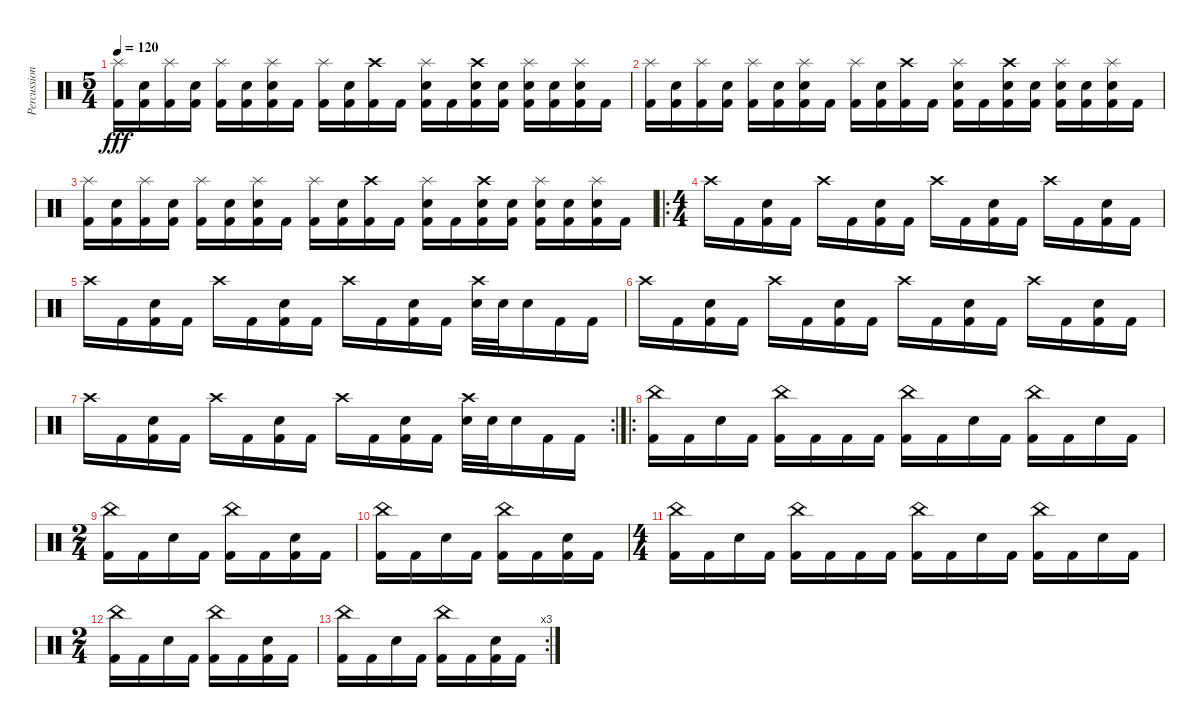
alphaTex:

\track ("Percussion" "Percussion") {instrument percussion}
\staff {score}
\articulation defaults
\ts (5 4)
\tempo 120
\clef neutral
\ks c
("Splash (hit)" "Kick (hit) 2").16{dy fff} ("Snare (hit) 2" "Kick (hit) 2").16 ("Splash (hit)" "Kick (hit) 2").16 ("Snare (hit) 2" "Kick (hit) 2").16 ("Splash (hit)" "Kick (hit) 2").16 ("Snare (hit) 2" "Kick (hit) 2").16 ("Splash (hit)" "Snare (hit) 2" "Kick (hit) 2").16 "Kick (hit) 2".16 ("Splash (hit)" "Kick (hit) 2").16 ("Snare (hit) 2" "Kick (hit) 2").16 ("Crash high (hit)" "Kick (hit) 2").16 "Kick (hit) 2".16 ("Splash (hit)" "Snare (hit) 2" "Kick (hit) 2").16 "Kick (hit) 2".16 ("Crash high (hit)" "Snare (hit) 2" "Kick (hit) 2").16 ("Snare (hit) 2" "Kick (hit) 2").16 ("Splash (hit)" "Snare (hit) 2" "Kick (hit) 2").16 ("Snare (hit) 2" "Kick (hit) 2").16 ("Splash (hit)" "Snare (hit) 2" "Kick (hit) 2").16 "Kick (hit) 2".16 |
("Splash (hit)" "Kick (hit) 2").16 ("Snare (hit) 2" "Kick (hit) 2").16 ("Splash (hit)" "Kick (hit) 2").16 ("Snare (hit) 2" "Kick (hit) 2").16 ("Splash (hit)" "Kick (hit) 2").16 ("Snare (hit) 2" "Kick (hit) 2").16 ("Splash (hit)" "Snare (hit) 2" "Kick (hit) 2").16 "Kick (hit) 2".16 ("Splash (hit)" "Kick (hit) 2").16 ("Snare (hit) 2" "Kick (hit) 2").16 ("Crash high (hit)" "Kick (hit) 2").16 "Kick (hit) 2".16 ("Splash (hit)" "Snare (hit) 2" "Kick (hit) 2").16 "Kick (hit) 2".16 ("Crash high (hit)" "Snare (hit) 2" "Kick (hit) 2").16 ("Snare (hit) 2" "Kick (hit) 2").16 ("Splash (hit)" "Snare (hit) 2" "Kick (hit) 2").16 ("Snare (hit) 2" "Kick (hit) 2").16 ("Splash (hit)" "Snare (hit) 2" "Kick (hit) 2").16 "Kick (hit) 2".16 |
("Splash (hit)" "Kick (hit) 2").16 ("Snare (hit) 2" "Kick (hit) 2").16 ("Splash (hit)" "Kick (hit) 2").16 ("Snare (hit) 2" "Kick (hit) 2").16 ("Splash (hit)" "Kick (hit) 2").16 ("Snare (hit) 2" "Kick (hit) 2").16 ("Splash (hit)" "Snare (hit) 2" "Kick (hit) 2").16 "Kick (hit) 2".16 ("Splash (hit)" "Kick (hit) 2").16 ("Snare (hit) 2" "Kick (hit) 2").16 ("Crash high (hit)" "Kick (hit) 2").16 "Kick (hit) 2".16 ("Splash (hit)" "Snare (hit) 2" "Kick (hit) 2").16 "Kick (hit) 2".16 ("Crash high (hit)" "Snare (hit) 2" "Kick (hit) 2").16 ("Snare (hit) 2" "Kick (hit) 2").16 ("Splash (hit)" "Snare (hit) 2" "Kick (hit) 2").16 ("Snare (hit) 2" "Kick (hit) 2").16 ("Splash (hit)" "Snare (hit) 2" "Kick (hit) 2").16 "Kick (hit) 2".16 |
\ro
\ts (4 4)
"Crash high (hit)".16 "Kick (hit) 2".16 ("Snare (hit) 2" "Kick (hit) 2").16 "Kick (hit) 2".16 "Crash high (hit)".16 "Kick (hit) 2".16 ("Snare (hit) 2" "Kick (hit) 2").16 "Kick (hit) 2".16 "Crash high (hit)".16 "Kick (hit) 2".16 ("Snare (hit) 2" "Kick (hit) 2").16 "Kick (hit) 2".16 "Crash high (hit)".16 "Kick (hit) 2".16 ("Snare (hit) 2" "Kick (hit) 2").16 "Kick (hit) 2".16 |
"Crash high (hit)".16 "Kick (hit) 2".16 ("Snare (hit) 2" "Kick (hit) 2").16 "Kick (hit) 2".16 "Crash high (hit)".16 "Kick (hit) 2".16 ("Snare (hit) 2" "Kick (hit) 2").16 "Kick (hit) 2".16 "Crash high (hit)".16 "Kick (hit) 2".16 ("Snare (hit) 2" "Kick (hit) 2").16 "Kick (hit) 2".16 ("Crash high (hit)" "Snare (hit) 2").32 "Snare (hit) 2".32 "Snare (hit) 2".16 "Kick (hit) 2".16 "Kick (hit) 2".16 |
"Crash high (hit)".16 "Kick (hit) 2".16 ("Snare (hit) 2" "Kick (hit) 2").16 "Kick (hit) 2".16 "Crash high (hit)".16 "Kick (hit) 2".16 ("Snare (hit) 2" "Kick (hit) 2").16 "Kick (hit) 2".16 "Crash high (hit)".16 "Kick (hit) 2".16 ("Snare (hit) 2" "Kick (hit) 2").16 "Kick (hit) 2".16 "Crash high (hit)".16 "Kick (hit) 2".16 ("Snare (hit) 2" "Kick (hit) 2").16 "Kick (hit) 2".16 |
\rc 2 "Crash high (hit)".16 "Kick (hit) 2".16
("Snare (hit) 2" "Kick (hit) 2").16 "Kick (hit) 2".16 "Crash high (hit)".16 "Kick (hit) 2".16 ("Snare (hit) 2" "Kick (hit) 2").16 "Kick (hit) 2".16 "Crash high (hit)".16 "Kick (hit) 2".16 ("Snare (hit) 2" "Kick (hit) 2").16 "Kick (hit) 2".16 ("Crash high (hit)" "Snare (hit) 2").32 "Snare (hit) 2".32 "Snare (hit) 2".16 "Kick (hit) 2".16 "Kick (hit) 2".16 |
\ro
("China (hit)" "Kick (hit) 2").16 "Kick (hit) 2".16 "Snare (hit) 2".16 "Kick (hit) 2".16 ("China (hit)" "Kick (hit) 2").16 "Kick (hit) 2".16 "Kick (hit) 2".16 "Kick (hit) 2".16 ("China (hit)" "Kick (hit) 2").16 "Kick (hit) 2".16 "Snare (hit) 2".16 "Kick (hit) 2".16 ("China (hit)" "Kick (hit) 2").16 "Kick (hit) 2".16 "Snare (hit) 2".16 "Kick (hit) 2".16 |
\ts (2 4)
("China (hit)" "Kick (hit) 2").16 "Kick (hit) 2".16 "Snare (hit) 2".16 "Kick (hit) 2".16 ("China (hit)" "Kick (hit) 2").16 "Kick (hit) 2".16 ("Snare (hit) 2" "Kick (hit) 2").16 "Kick (hit) 2".16 |
("China (hit)" "Kick (hit) 2").16 "Kick (hit) 2".16 "Snare (hit) 2".16 "Kick (hit) 2".16 ("China (hit)" "Kick (hit) 2").16 "Kick (hit) 2".16 ("Snare (hit) 2" "Kick (hit) 2").16 "Kick (hit) 2".16 |
\ts (4 4)
("China (hit)" "Kick (hit) 2").16 "Kick (hit) 2".16 "Snare (hit) 2".16 "Kick (hit) 2".16 ("China (hit)" "Kick (hit) 2").16 "Kick (hit) 2".16 "Kick (hit) 2".16 "Kick (hit) 2".16 ("China (hit)" "Kick (hit) 2").16 "Kick (hit) 2".16 "Snare (hit) 2".16 "Kick (hit) 2".16 ("China (hit)" "Kick (hit) 2").16 "Kick (hit) 2".16 "Snare (hit) 2".16 "Kick (hit) 2".16 |
\ts (2 4)
("China (hit)" "Kick (hit) 2").16 "Kick (hit) 2".16 "Snare (hit) 2".16 "Kick (hit) 2".16 ("China (hit)" "Kick (hit) 2").16 "Kick (hit) 2".16 ("Snare (hit) 2" "Kick (hit) 2").16 "Kick (hit) 2".16 |
\rc 3
("China (hit)" "Kick (hit) 2").16 "Kick (hit) 2".16 "Snare (hit) 2".16 "Kick (hit) 2".16 ("China (hit)" "Kick (hit) 2").16 "Kick (hit) 2".16 ("Snare (hit) 2" "Kick (hit) 2").16 "Kick (hit) 2".16
